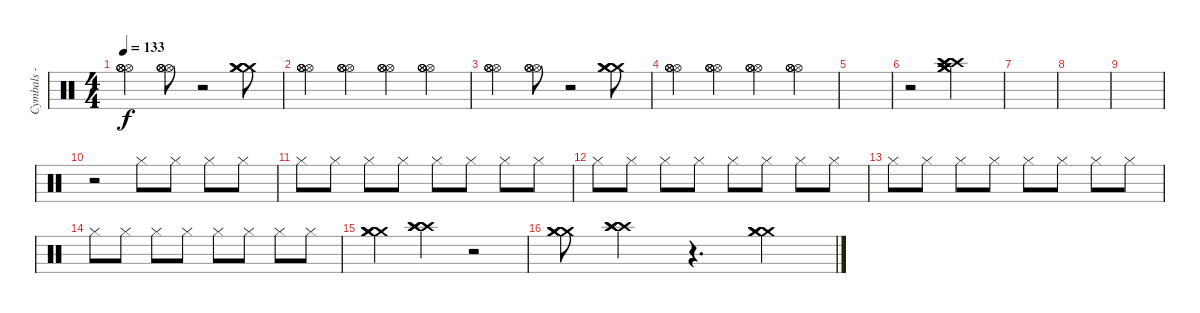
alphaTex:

\track ("Cymbals - Joe Daniels" "Cymbals - ") {instrument percussion}
\staff {score}
\articulation defaults
\ts (4 4)
\tempo 133
\clef neutral
\ks c
("Hi-Hat (open)" "Hi-Hat (open)" "Hi-Hat (open)" "Hi-Hat (open)").4{dy f} ("Hi-Hat (open)" "Hi-Hat (open)" "Hi-Hat (open)" "Hi-Hat (open)").8 r.2 ("Crash medium (hit)" "Crash medium (hit)" "Crash medium (hit)" "Crash medium (hit)").8 |
("Hi-Hat (open)" "Hi-Hat (open)" "Hi-Hat (open)" "Hi-Hat (open)").4 ("Hi-Hat (open)" "Hi-Hat (open)" "Hi-Hat (open)" "Hi-Hat (open)").4 ("Hi-Hat (open)" "Hi-Hat (open)" "Hi-Hat (open)" "Hi-Hat (open)").4 ("Hi-Hat (open)" "Hi-Hat (open)" "Hi-Hat (open)" "Hi-Hat (open)").4 |
("Hi-Hat (open)" "Hi-Hat (open)" "Hi-Hat (open)" "Hi-Hat (open)").4 ("Hi-Hat (open)" "Hi-Hat (open)" "Hi-Hat (open)" "Hi-Hat (open)").8 r.2 ("Crash medium (hit)" "Crash medium (hit)" "Crash medium (hit)" "Crash medium (hit)").8 |
("Hi-Hat (open)" "Hi-Hat (open)" "Hi-Hat (open)" "Hi-Hat (open)").4 ("Hi-Hat (open)" "Hi-Hat (open)" "Hi-Hat (open)" "Hi-Hat (open)").4 ("Hi-Hat (open)" "Hi-Hat (open)" "Hi-Hat (open)" "Hi-Hat (open)").4 ("Hi-Hat (open)" "Hi-Hat (open)" "Hi-Hat (open)" "Hi-Hat (open)").4 |
|
r.2 ("Crash medium (hit)" "Crash medium (hit)" "Crash medium (hit)" "Crash high (hit)" "Crash high (hit)" "Crash high (hit)").2 |
|
|
|
r.2 "Hi-Hat (closed)".8 "Hi-Hat (closed)".8 "Hi-Hat (closed)".8 "Hi-Hat (closed)".8 |
"Hi-Hat (closed)".8 "Hi-Hat (closed)".8 "Hi-Hat (closed)".8 "Hi-Hat (closed)".8 "Hi-Hat (closed)".8 "Hi-Hat (closed)".8 "Hi-Hat (closed)".8 "Hi-Hat (closed)".8 |
"Hi-Hat (closed)".8 "Hi-Hat (closed)".8 "Hi-Hat (closed)".8 "Hi-Hat (closed)".8 "Hi-Hat (closed)".8 "Hi-Hat (closed)".8 "Hi-Hat (closed)".8 "Hi-Hat (closed)".8 |
"Hi-Hat (closed)".8 "Hi-Hat (closed)".8 "Hi-Hat (closed)".8 "Hi-Hat (closed)".8 "Hi-Hat (closed)".8 "Hi-Hat (closed)".8 "Hi-Hat (closed)".8 "Hi-Hat (closed)".8 |
"Hi-Hat (closed)".8 "Hi-Hat (closed)".8 "Hi-Hat (closed)".8 "Hi-Hat (closed)".8 "Hi-Hat (closed)".8 "Hi-Hat (closed)".8 "Hi-Hat (closed)".8 "Hi-Hat (closed)".8 |
("Crash medium (hit)" "Crash medium (hit)" "Crash medium (hit)" "Crash medium (hit)").4 ("Crash high (hit)" "Crash high (hit)" "Crash high (hit)" "Crash high (hit)").4 r.2 |
("Crash medium (hit)" "Crash medium (hit)" "Crash medium (hit)" "Crash medium (hit)").8 ("Crash high (hit)" "Crash high (hit)" "Crash high (hit)" "Crash high (hit)").4 r.4{d} ("Crash medium (hit)" "Crash medium (hit)" "Crash medium (hit)" "Crash medium (hit)").4
